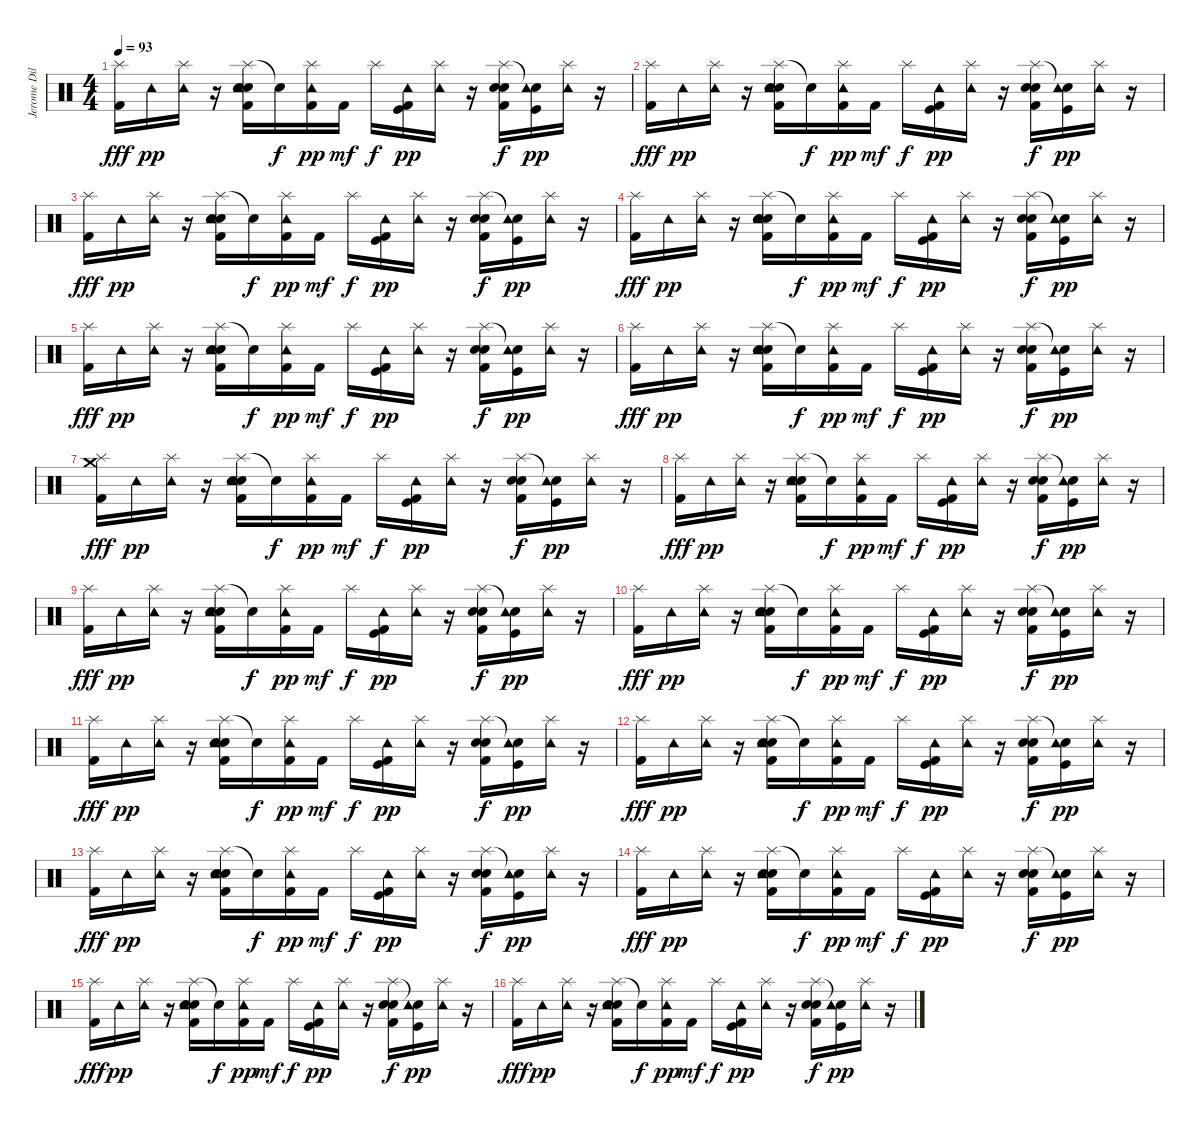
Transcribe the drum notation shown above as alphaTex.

\track ("Jerome Dillon" "Jerome Dil") {instrument percussion}
\staff {score}
\articulation defaults
\ts (4 4)
\tempo 93
\clef neutral
\ks c
("Splash (hit)" "Kick (hit) 2").16{dy fff} "Tambourine (hit)".16{dy pp} ("Splash (hit)" "Tambourine (hit)").16 r.16 ("Splash (hit)" "Hand Clap (hit)" "Snare (hit) 2" "Kick (hit) 2" "Tambourine (hit)").16 "Snare (hit)"{t}.16{dy f} ("Splash (hit)" "Kick (hit) 2" "Tambourine (hit)").16{dy pp} "Kick (hit) 2".16{dy mf} "Splash (hit)".16{dy f} ("Kick (hit)" "Kick (hit) 2" "Tambourine (hit)").16{dy pp} ("Splash (hit)" "Tambourine (hit)").16 r.16 ("Splash (hit)" "Hand Clap (hit)" "Snare (hit) 2" "Kick (hit) 2").16{dy f} ("Snare (hit)"{t} "Kick (hit)" "Tambourine (hit)").16{dy pp} ("Splash (hit)" "Tambourine (hit)").16 r.16 |
("Splash (hit)" "Kick (hit) 2").16{dy fff} "Tambourine (hit)".16{dy pp} ("Splash (hit)" "Tambourine (hit)").16 r.16 ("Splash (hit)" "Hand Clap (hit)" "Snare (hit) 2" "Kick (hit) 2" "Tambourine (hit)").16 "Snare (hit)"{t}.16{dy f} ("Splash (hit)" "Kick (hit) 2" "Tambourine (hit)").16{dy pp} "Kick (hit) 2".16{dy mf} "Splash (hit)".16{dy f} ("Kick (hit)" "Kick (hit) 2" "Tambourine (hit)").16{dy pp} ("Splash (hit)" "Tambourine (hit)").16 r.16 ("Splash (hit)" "Hand Clap (hit)" "Snare (hit) 2" "Kick (hit) 2").16{dy f} ("Snare (hit)"{t} "Kick (hit)" "Tambourine (hit)").16{dy pp} ("Splash (hit)" "Tambourine (hit)").16 r.16 |
("Splash (hit)" "Kick (hit) 2").16{dy fff} "Tambourine (hit)".16{dy pp} ("Splash (hit)" "Tambourine (hit)").16 r.16 ("Splash (hit)" "Hand Clap (hit)" "Snare (hit) 2" "Kick (hit) 2" "Tambourine (hit)").16 "Snare (hit)"{t}.16{dy f} ("Splash (hit)" "Kick (hit) 2" "Tambourine (hit)").16{dy pp} "Kick (hit) 2".16{dy mf} "Splash (hit)".16{dy f} ("Kick (hit)" "Kick (hit) 2" "Tambourine (hit)").16{dy pp} ("Splash (hit)" "Tambourine (hit)").16 r.16 ("Splash (hit)" "Hand Clap (hit)" "Snare (hit) 2" "Kick (hit) 2").16{dy f} ("Snare (hit)"{t} "Kick (hit)" "Tambourine (hit)").16{dy pp} ("Splash (hit)" "Tambourine (hit)").16 r.16 |
("Splash (hit)" "Kick (hit) 2").16{dy fff} "Tambourine (hit)".16{dy pp} ("Splash (hit)" "Tambourine (hit)").16 r.16 ("Splash (hit)" "Hand Clap (hit)" "Snare (hit) 2" "Kick (hit) 2" "Tambourine (hit)").16 "Snare (hit)"{t}.16{dy f} ("Splash (hit)" "Kick (hit) 2" "Tambourine (hit)").16{dy pp} "Kick (hit) 2".16{dy mf} "Splash (hit)".16{dy f} ("Kick (hit)" "Kick (hit) 2" "Tambourine (hit)").16{dy pp} ("Splash (hit)" "Tambourine (hit)").16 r.16 ("Splash (hit)" "Hand Clap (hit)" "Snare (hit) 2" "Kick (hit) 2").16{dy f} ("Snare (hit)"{t} "Kick (hit)" "Tambourine (hit)").16{dy pp} ("Splash (hit)" "Tambourine (hit)").16 r.16 |
("Splash (hit)" "Kick (hit) 2").16{dy fff} "Tambourine (hit)".16{dy pp} ("Splash (hit)" "Tambourine (hit)").16 r.16 ("Splash (hit)" "Hand Clap (hit)" "Snare (hit) 2" "Kick (hit) 2" "Tambourine (hit)").16 "Snare (hit)"{t}.16{dy f} ("Splash (hit)" "Kick (hit) 2" "Tambourine (hit)").16{dy pp} "Kick (hit) 2".16{dy mf} "Splash (hit)".16{dy f} ("Kick (hit)" "Kick (hit) 2" "Tambourine (hit)").16{dy pp} ("Splash (hit)" "Tambourine (hit)").16 r.16 ("Splash (hit)" "Hand Clap (hit)" "Snare (hit) 2" "Kick (hit) 2").16{dy f} ("Snare (hit)"{t} "Kick (hit)" "Tambourine (hit)").16{dy pp} ("Splash (hit)" "Tambourine (hit)").16 r.16 |
("Splash (hit)" "Kick (hit) 2").16{dy fff} "Tambourine (hit)".16{dy pp} ("Splash (hit)" "Tambourine (hit)").16 r.16 ("Splash (hit)" "Hand Clap (hit)" "Snare (hit) 2" "Kick (hit) 2" "Tambourine (hit)").16 "Snare (hit)"{t}.16{dy f} ("Splash (hit)" "Kick (hit) 2" "Tambourine (hit)").16{dy pp} "Kick (hit) 2".16{dy mf} "Splash (hit)".16{dy f} ("Kick (hit)" "Kick (hit) 2" "Tambourine (hit)").16{dy pp} ("Splash (hit)" "Tambourine (hit)").16 r.16 ("Splash (hit)" "Hand Clap (hit)" "Snare (hit) 2" "Kick (hit) 2").16{dy f} ("Snare (hit)"{t} "Kick (hit)" "Tambourine (hit)").16{dy pp} ("Splash (hit)" "Tambourine (hit)").16 r.16 |
("Splash (hit)" "Crash medium (hit)" "Kick (hit) 2").16{dy fff} "Tambourine (hit)".16{dy pp} ("Splash (hit)" "Tambourine (hit)").16 r.16 ("Splash (hit)" "Hand Clap (hit)" "Snare (hit) 2" "Kick (hit) 2" "Tambourine (hit)").16 "Snare (hit)"{t}.16{dy f} ("Splash (hit)" "Kick (hit) 2" "Tambourine (hit)").16{dy pp} "Kick (hit) 2".16{dy mf} "Splash (hit)".16{dy f} ("Kick (hit)" "Kick (hit) 2" "Tambourine (hit)").16{dy pp} ("Splash (hit)" "Tambourine (hit)").16 r.16 ("Splash (hit)" "Hand Clap (hit)" "Snare (hit) 2" "Kick (hit) 2").16{dy f} ("Snare (hit)"{t} "Kick (hit)" "Tambourine (hit)").16{dy pp} ("Splash (hit)" "Tambourine (hit)").16 r.16 |
("Splash (hit)" "Kick (hit) 2").16{dy fff} "Tambourine (hit)".16{dy pp} ("Splash (hit)" "Tambourine (hit)").16 r.16 ("Splash (hit)" "Hand Clap (hit)" "Snare (hit) 2" "Kick (hit) 2" "Tambourine (hit)").16 "Snare (hit)"{t}.16{dy f} ("Splash (hit)" "Kick (hit) 2" "Tambourine (hit)").16{dy pp} "Kick (hit) 2".16{dy mf} "Splash (hit)".16{dy f} ("Kick (hit)" "Kick (hit) 2" "Tambourine (hit)").16{dy pp} ("Splash (hit)" "Tambourine (hit)").16 r.16 ("Splash (hit)" "Hand Clap (hit)" "Snare (hit) 2" "Kick (hit) 2").16{dy f} ("Snare (hit)"{t} "Kick (hit)" "Tambourine (hit)").16{dy pp} ("Splash (hit)" "Tambourine (hit)").16 r.16 |
("Splash (hit)" "Kick (hit) 2").16{dy fff} "Tambourine (hit)".16{dy pp} ("Splash (hit)" "Tambourine (hit)").16 r.16 ("Splash (hit)" "Hand Clap (hit)" "Snare (hit) 2" "Kick (hit) 2" "Tambourine (hit)").16 "Snare (hit)"{t}.16{dy f} ("Splash (hit)" "Kick (hit) 2" "Tambourine (hit)").16{dy pp} "Kick (hit) 2".16{dy mf} "Splash (hit)".16{dy f} ("Kick (hit)" "Kick (hit) 2" "Tambourine (hit)").16{dy pp} ("Splash (hit)" "Tambourine (hit)").16 r.16 ("Splash (hit)" "Hand Clap (hit)" "Snare (hit) 2" "Kick (hit) 2").16{dy f} ("Snare (hit)"{t} "Kick (hit)" "Tambourine (hit)").16{dy pp} ("Splash (hit)" "Tambourine (hit)").16 r.16 |
("Splash (hit)" "Kick (hit) 2").16{dy fff} "Tambourine (hit)".16{dy pp} ("Splash (hit)" "Tambourine (hit)").16 r.16 ("Splash (hit)" "Hand Clap (hit)" "Snare (hit) 2" "Kick (hit) 2" "Tambourine (hit)").16 "Snare (hit)"{t}.16{dy f} ("Splash (hit)" "Kick (hit) 2" "Tambourine (hit)").16{dy pp} "Kick (hit) 2".16{dy mf} "Splash (hit)".16{dy f} ("Kick (hit)" "Kick (hit) 2" "Tambourine (hit)").16{dy pp} ("Splash (hit)" "Tambourine (hit)").16 r.16 ("Splash (hit)" "Hand Clap (hit)" "Snare (hit) 2" "Kick (hit) 2").16{dy f} ("Snare (hit)"{t} "Kick (hit)" "Tambourine (hit)").16{dy pp} ("Splash (hit)" "Tambourine (hit)").16 r.16 |
("Splash (hit)" "Kick (hit) 2").16{dy fff} "Tambourine (hit)".16{dy pp} ("Splash (hit)" "Tambourine (hit)").16 r.16 ("Splash (hit)" "Hand Clap (hit)" "Snare (hit) 2" "Kick (hit) 2" "Tambourine (hit)").16 "Snare (hit)"{t}.16{dy f} ("Splash (hit)" "Kick (hit) 2" "Tambourine (hit)").16{dy pp} "Kick (hit) 2".16{dy mf} "Splash (hit)".16{dy f} ("Kick (hit)" "Kick (hit) 2" "Tambourine (hit)").16{dy pp} ("Splash (hit)" "Tambourine (hit)").16 r.16 ("Splash (hit)" "Hand Clap (hit)" "Snare (hit) 2" "Kick (hit) 2").16{dy f} ("Snare (hit)"{t} "Kick (hit)" "Tambourine (hit)").16{dy pp} ("Splash (hit)" "Tambourine (hit)").16 r.16 |
("Splash (hit)" "Kick (hit) 2").16{dy fff} "Tambourine (hit)".16{dy pp} ("Splash (hit)" "Tambourine (hit)").16 r.16 ("Splash (hit)" "Hand Clap (hit)" "Snare (hit) 2" "Kick (hit) 2" "Tambourine (hit)").16 "Snare (hit)"{t}.16{dy f} ("Splash (hit)" "Kick (hit) 2" "Tambourine (hit)").16{dy pp} "Kick (hit) 2".16{dy mf} "Splash (hit)".16{dy f} ("Kick (hit)" "Kick (hit) 2" "Tambourine (hit)").16{dy pp} ("Splash (hit)" "Tambourine (hit)").16 r.16 ("Splash (hit)" "Hand Clap (hit)" "Snare (hit) 2" "Kick (hit) 2").16{dy f} ("Snare (hit)"{t} "Kick (hit)" "Tambourine (hit)").16{dy pp} ("Splash (hit)" "Tambourine (hit)").16 r.16 |
("Splash (hit)" "Kick (hit) 2").16{dy fff} "Tambourine (hit)".16{dy pp} ("Splash (hit)" "Tambourine (hit)").16 r.16 ("Splash (hit)" "Hand Clap (hit)" "Snare (hit) 2" "Kick (hit) 2" "Tambourine (hit)").16 "Snare (hit)"{t}.16{dy f} ("Splash (hit)" "Kick (hit) 2" "Tambourine (hit)").16{dy pp} "Kick (hit) 2".16{dy mf} "Splash (hit)".16{dy f} ("Kick (hit)" "Kick (hit) 2" "Tambourine (hit)").16{dy pp} ("Splash (hit)" "Tambourine (hit)").16 r.16 ("Splash (hit)" "Hand Clap (hit)" "Snare (hit) 2" "Kick (hit) 2").16{dy f} ("Snare (hit)"{t} "Kick (hit)" "Tambourine (hit)").16{dy pp} ("Splash (hit)" "Tambourine (hit)").16 r.16 |
("Splash (hit)" "Kick (hit) 2").16{dy fff} "Tambourine (hit)".16{dy pp} ("Splash (hit)" "Tambourine (hit)").16 r.16 ("Splash (hit)" "Hand Clap (hit)" "Snare (hit) 2" "Kick (hit) 2" "Tambourine (hit)").16 "Snare (hit)"{t}.16{dy f} ("Splash (hit)" "Kick (hit) 2" "Tambourine (hit)").16{dy pp} "Kick (hit) 2".16{dy mf} "Splash (hit)".16{dy f} ("Kick (hit)" "Kick (hit) 2" "Tambourine (hit)").16{dy pp} ("Splash (hit)" "Tambourine (hit)").16 r.16 ("Splash (hit)" "Hand Clap (hit)" "Snare (hit) 2" "Kick (hit) 2").16{dy f} ("Snare (hit)"{t} "Kick (hit)" "Tambourine (hit)").16{dy pp} ("Splash (hit)" "Tambourine (hit)").16 r.16 |
("Splash (hit)" "Kick (hit) 2").16{dy fff} "Tambourine (hit)".16{dy pp} ("Splash (hit)" "Tambourine (hit)").16 r.16 ("Splash (hit)" "Hand Clap (hit)" "Snare (hit) 2" "Kick (hit) 2" "Tambourine (hit)").16 "Snare (hit)"{t}.16{dy f} ("Splash (hit)" "Kick (hit) 2" "Tambourine (hit)").16{dy pp} "Kick (hit) 2".16{dy mf} "Splash (hit)".16{dy f} ("Kick (hit)" "Kick (hit) 2" "Tambourine (hit)").16{dy pp} ("Splash (hit)" "Tambourine (hit)").16 r.16 ("Splash (hit)" "Hand Clap (hit)" "Snare (hit) 2" "Kick (hit) 2").16{dy f} ("Snare (hit)"{t} "Kick (hit)" "Tambourine (hit)").16{dy pp} ("Splash (hit)" "Tambourine (hit)").16 r.16 |
("Splash (hit)" "Kick (hit) 2").16{dy fff} "Tambourine (hit)".16{dy pp} ("Splash (hit)" "Tambourine (hit)").16 r.16 ("Splash (hit)" "Hand Clap (hit)" "Snare (hit) 2" "Kick (hit) 2" "Tambourine (hit)").16 "Snare (hit)"{t}.16{dy f} ("Splash (hit)" "Kick (hit) 2" "Tambourine (hit)").16{dy pp} "Kick (hit) 2".16{dy mf} "Splash (hit)".16{dy f} ("Kick (hit)" "Kick (hit) 2" "Tambourine (hit)").16{dy pp} ("Splash (hit)" "Tambourine (hit)").16 r.16 ("Splash (hit)" "Hand Clap (hit)" "Snare (hit) 2" "Kick (hit) 2").16{dy f} ("Snare (hit)"{t} "Kick (hit)" "Tambourine (hit)").16{dy pp} ("Splash (hit)" "Tambourine (hit)").16 r.16
